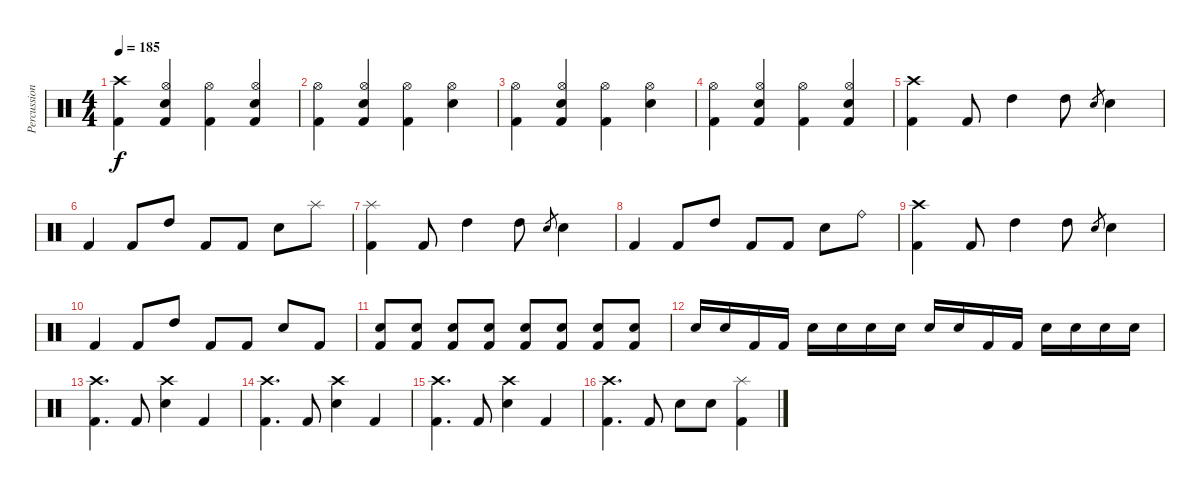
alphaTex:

\track ("Percussion" "Percussion") {instrument percussion}
\staff {score}
\articulation defaults
\ts (4 4)
\tempo 185
\clef neutral
\ks c
("Crash high (hit)" "Kick (hit) 2").4{dy f} ("Hi-Hat (open)" "Snare (hit) 2" "Kick (hit) 2").4 ("Hi-Hat (open)" "Kick (hit) 2").4 ("Hi-Hat (open)" "Snare (hit) 2" "Kick (hit) 2").4 |
("Hi-Hat (open)" "Kick (hit) 2").4 ("Hi-Hat (open)" "Snare (hit) 2" "Kick (hit) 2").4 ("Hi-Hat (open)" "Kick (hit) 2").4 ("Hi-Hat (open)" "Snare (hit) 2").4 |
("Hi-Hat (open)" "Kick (hit) 2").4 ("Hi-Hat (open)" "Snare (hit) 2" "Kick (hit) 2").4 ("Hi-Hat (open)" "Kick (hit) 2").4 ("Hi-Hat (open)" "Snare (hit) 2").4 |
("Hi-Hat (open)" "Kick (hit) 2").4 ("Hi-Hat (open)" "Snare (hit) 2" "Kick (hit) 2").4 ("Hi-Hat (open)" "Kick (hit) 2").4 ("Hi-Hat (open)" "Snare (hit) 2" "Kick (hit) 2").4 |
("Crash high (hit)" "Kick (hit) 2").4 "Kick (hit) 2".8 "High Tom (hit)".4 "High Tom (hit)".8 "Snare (hit) 2".8{gr} "Snare (hit) 2".4 |
"Kick (hit) 2".4 "Kick (hit) 2".8 "High Tom (hit)".8 "Kick (hit) 2".8 "Kick (hit) 2".8 "Snare (hit) 2".8 "Splash (hit)".8 |
("Splash (hit)" "Kick (hit) 2").4 "Kick (hit) 2".8 "High Tom (hit)".4 "High Tom (hit)".8 "Snare (hit) 2".8{gr} "Snare (hit) 2".4 |
"Kick (hit) 2".4 "Kick (hit) 2".8 "High Tom (hit)".8 "Kick (hit) 2".8 "Kick (hit) 2".8 "Snare (hit) 2".8 "Ride (bell)".8 |
("Crash high (hit)" "Kick (hit) 2").4 "Kick (hit) 2".8 "High Tom (hit)".4 "High Tom (hit)".8 "Snare (hit) 2".8{gr} "Snare (hit) 2".4 |
"Kick (hit) 2".4 "Kick (hit) 2".8 "High Tom (hit)".8 "Kick (hit) 2".8 "Kick (hit) 2".8 "Snare (hit) 2".8 "Kick (hit) 2".8 |
("Snare (hit) 2" "Kick (hit) 2").8 ("Snare (hit) 2" "Kick (hit) 2").8{volume 7} ("Snare (hit) 2" "Kick (hit) 2").8{volume 13} ("Snare (hit) 2" "Kick (hit) 2").8 ("Snare (hit) 2" "Kick (hit) 2").8 ("Snare (hit) 2" "Kick (hit) 2").8 ("Snare (hit) 2" "Kick (hit) 2").8 ("Snare (hit) 2" "Kick (hit) 2").8 |
"Snare (hit) 2".16 "Snare (hit) 2".16 "Kick (hit) 2".16 "Kick (hit) 2".16 "Snare (hit) 2".16 "Snare (hit) 2".16 "Snare (hit) 2".16 "Snare (hit) 2".16 "Snare (hit) 2".16 "Snare (hit) 2".16 "Kick (hit) 2".16 "Kick (hit) 2".16 "Snare (hit) 2".16 "Snare (hit) 2".16 "Snare (hit) 2".16 "Snare (hit) 2".16 |
("Crash high (hit)" "Kick (hit) 2").4{d} "Kick (hit) 2".8 ("Crash high (hit)" "Snare (hit) 2").4 "Kick (hit) 2".4 |
("Crash high (hit)" "Kick (hit) 2").4{d} "Kick (hit) 2".8 ("Crash high (hit)" "Snare (hit) 2").4 "Kick (hit) 2".4 |
("Crash high (hit)" "Kick (hit) 2").4{d} "Kick (hit) 2".8 ("Crash high (hit)" "Snare (hit) 2").4 "Kick (hit) 2".4 |
("Crash high (hit)" "Kick (hit) 2").4{d} "Kick (hit) 2".8 "Snare (hit) 2".8 "Snare (hit) 2".8 ("Splash (hit)" "Kick (hit) 2").4
